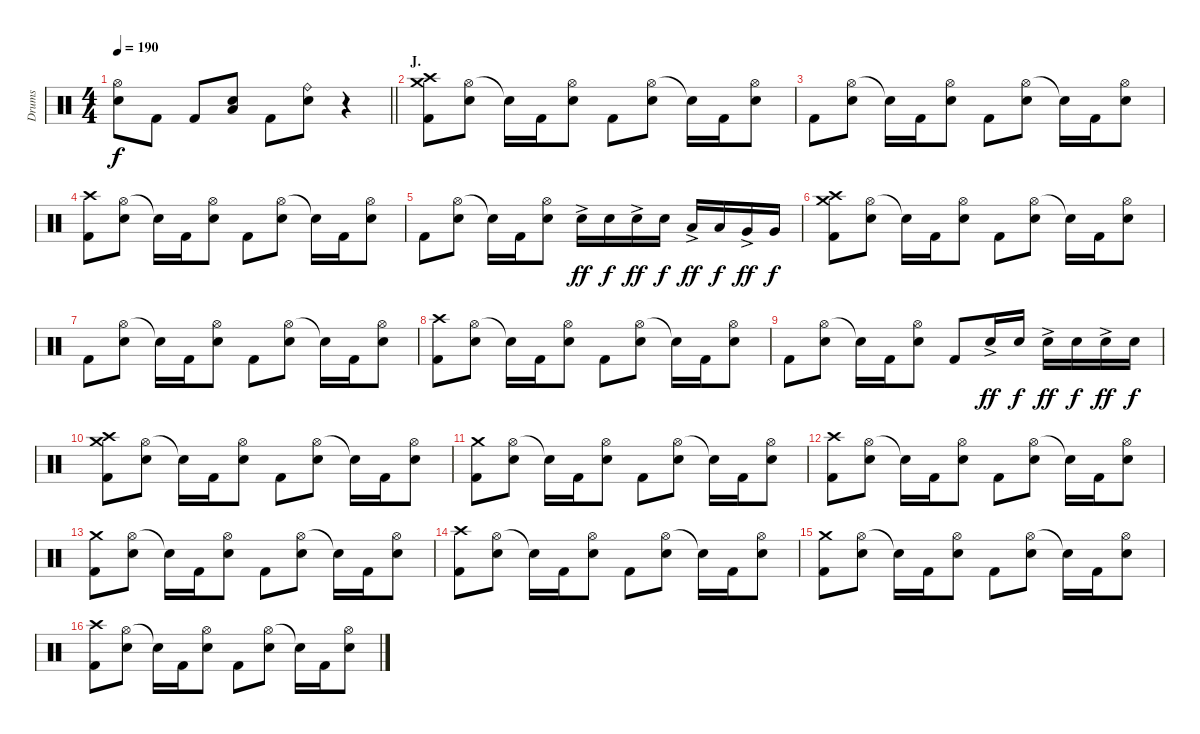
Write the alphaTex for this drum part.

\track ("Drums" "Drums") {instrument percussion}
\staff {score}
\articulation defaults
\ts (4 4)
\tempo 190
\clef neutral
\barLineRight lightlight
\ks c
("Hi-Hat (open)" "Electric Snare (hit)").8{dy f} "Kick (hit) 2".8 "Kick (hit) 2".8 ("Electric Snare (hit)" "Low Floor Tom (hit)").8{bu 120} "Kick (hit) 2".8 ("Ride (bell)" "Electric Snare (hit)").8 r.4 |
\section ("" "J.")
("Crash medium (hit)" "Crash high (hit)" "Kick (hit) 2").8 ("Hi-Hat (open)" "Electric Snare (hit)").8 "Snare (hit)"{t}.16 "Kick (hit) 2".16 ("Hi-Hat (open)" "Electric Snare (hit)").8 "Kick (hit) 2".8 ("Hi-Hat (open)" "Electric Snare (hit)").8 "Snare (hit)"{t}.16 "Kick (hit) 2".16 ("Hi-Hat (open)" "Electric Snare (hit)").8 |
"Kick (hit) 2".8 ("Hi-Hat (open)" "Electric Snare (hit)").8 "Snare (hit)"{t}.16 "Kick (hit) 2".16 ("Hi-Hat (open)" "Electric Snare (hit)").8 "Kick (hit) 2".8 ("Hi-Hat (open)" "Electric Snare (hit)").8 "Snare (hit)"{t}.16 "Kick (hit) 2".16 ("Hi-Hat (open)" "Electric Snare (hit)").8 |
("Crash high (hit)" "Kick (hit) 2").8 ("Hi-Hat (open)" "Electric Snare (hit)").8 "Snare (hit)"{t}.16 "Kick (hit) 2".16 ("Hi-Hat (open)" "Electric Snare (hit)").8 "Kick (hit) 2".8 ("Hi-Hat (open)" "Electric Snare (hit)").8 "Snare (hit)"{t}.16 "Kick (hit) 2".16 ("Hi-Hat (open)" "Electric Snare (hit)").8 |
"Kick (hit) 2".8 ("Hi-Hat (open)" "Electric Snare (hit)").8 "Snare (hit)"{t}.16 "Kick (hit) 2".16 ("Hi-Hat (open)" "Electric Snare (hit)").8 "Electric Snare (hit)"{ac}.16{dy ff} "Electric Snare (hit)".16{dy f} "Electric Snare (hit)"{ac}.16{dy ff} "Electric Snare (hit)".16{dy f} "Low Tom (hit)"{ac}.16{dy ff} "Low Tom (hit)".16{dy f} "Very Low Tom (hit)"{ac}.16{dy ff} "Very Low Tom (hit)".16{dy f} |
("Crash medium (hit)" "Crash high (hit)" "Kick (hit) 2").8 ("Hi-Hat (open)" "Electric Snare (hit)").8 "Snare (hit)"{t}.16 "Kick (hit) 2".16 ("Hi-Hat (open)" "Electric Snare (hit)").8 "Kick (hit) 2".8 ("Hi-Hat (open)" "Electric Snare (hit)").8 "Snare (hit)"{t}.16 "Kick (hit) 2".16 ("Hi-Hat (open)" "Electric Snare (hit)").8 |
"Kick (hit) 2".8 ("Hi-Hat (open)" "Electric Snare (hit)").8 "Snare (hit)"{t}.16 "Kick (hit) 2".16 ("Hi-Hat (open)" "Electric Snare (hit)").8 "Kick (hit) 2".8 ("Hi-Hat (open)" "Electric Snare (hit)").8 "Snare (hit)"{t}.16 "Kick (hit) 2".16 ("Hi-Hat (open)" "Electric Snare (hit)").8 |
("Crash high (hit)" "Kick (hit) 2").8 ("Hi-Hat (open)" "Electric Snare (hit)").8 "Snare (hit)"{t}.16 "Kick (hit) 2".16 ("Hi-Hat (open)" "Electric Snare (hit)").8 "Kick (hit) 2".8 ("Hi-Hat (open)" "Electric Snare (hit)").8 "Snare (hit)"{t}.16 "Kick (hit) 2".16 ("Hi-Hat (open)" "Electric Snare (hit)").8 |
"Kick (hit) 2".8 ("Hi-Hat (open)" "Electric Snare (hit)").8 "Snare (hit)"{t}.16 "Kick (hit) 2".16 ("Hi-Hat (open)" "Electric Snare (hit)").8 "Kick (hit) 2".8 "Electric Snare (hit)"{ac}.16{dy ff} "Electric Snare (hit)".16{dy f} "Electric Snare (hit)"{ac}.16{dy ff} "Electric Snare (hit)".16{dy f} "Electric Snare (hit)"{ac}.16{dy ff} "Electric Snare (hit)".16{dy f} |
("Crash medium (hit)" "Crash high (hit)" "Kick (hit) 2").8 ("Hi-Hat (open)" "Electric Snare (hit)").8 "Snare (hit)"{t}.16 "Kick (hit) 2".16 ("Hi-Hat (open)" "Electric Snare (hit)").8 "Kick (hit) 2".8 ("Hi-Hat (open)" "Electric Snare (hit)").8 "Snare (hit)"{t}.16 "Kick (hit) 2".16 ("Hi-Hat (open)" "Electric Snare (hit)").8 |
("Crash medium (hit)" "Kick (hit) 2").8 ("Hi-Hat (open)" "Electric Snare (hit)").8 "Snare (hit)"{t}.16 "Kick (hit) 2".16 ("Hi-Hat (open)" "Electric Snare (hit)").8 "Kick (hit) 2".8 ("Hi-Hat (open)" "Electric Snare (hit)").8 "Snare (hit)"{t}.16 "Kick (hit) 2".16 ("Hi-Hat (open)" "Electric Snare (hit)").8 |
("Crash high (hit)" "Kick (hit) 2").8 ("Hi-Hat (open)" "Electric Snare (hit)").8 "Snare (hit)"{t}.16 "Kick (hit) 2".16 ("Hi-Hat (open)" "Electric Snare (hit)").8 "Kick (hit) 2".8 ("Hi-Hat (open)" "Electric Snare (hit)").8 "Snare (hit)"{t}.16 "Kick (hit) 2".16 ("Hi-Hat (open)" "Electric Snare (hit)").8 |
("Crash medium (hit)" "Kick (hit) 2").8 ("Hi-Hat (open)" "Electric Snare (hit)").8 "Snare (hit)"{t}.16 "Kick (hit) 2".16 ("Hi-Hat (open)" "Electric Snare (hit)").8 "Kick (hit) 2".8 ("Hi-Hat (open)" "Electric Snare (hit)").8 "Snare (hit)"{t}.16 "Kick (hit) 2".16 ("Hi-Hat (open)" "Electric Snare (hit)").8 |
("Crash high (hit)" "Kick (hit) 2").8 ("Hi-Hat (open)" "Electric Snare (hit)").8 "Snare (hit)"{t}.16 "Kick (hit) 2".16 ("Hi-Hat (open)" "Electric Snare (hit)").8 "Kick (hit) 2".8 ("Hi-Hat (open)" "Electric Snare (hit)").8 "Snare (hit)"{t}.16 "Kick (hit) 2".16 ("Hi-Hat (open)" "Electric Snare (hit)").8 |
("Crash medium (hit)" "Kick (hit) 2").8 ("Hi-Hat (open)" "Electric Snare (hit)").8 "Snare (hit)"{t}.16 "Kick (hit) 2".16 ("Hi-Hat (open)" "Electric Snare (hit)").8 "Kick (hit) 2".8 ("Hi-Hat (open)" "Electric Snare (hit)").8 "Snare (hit)"{t}.16 "Kick (hit) 2".16 ("Hi-Hat (open)" "Electric Snare (hit)").8 |
("Crash high (hit)" "Kick (hit) 2").8 ("Hi-Hat (open)" "Electric Snare (hit)").8 "Snare (hit)"{t}.16 "Kick (hit) 2".16 ("Hi-Hat (open)" "Electric Snare (hit)").8 "Kick (hit) 2".8 ("Hi-Hat (open)" "Electric Snare (hit)").8 "Snare (hit)"{t}.16 "Kick (hit) 2".16 ("Hi-Hat (open)" "Electric Snare (hit)").8
